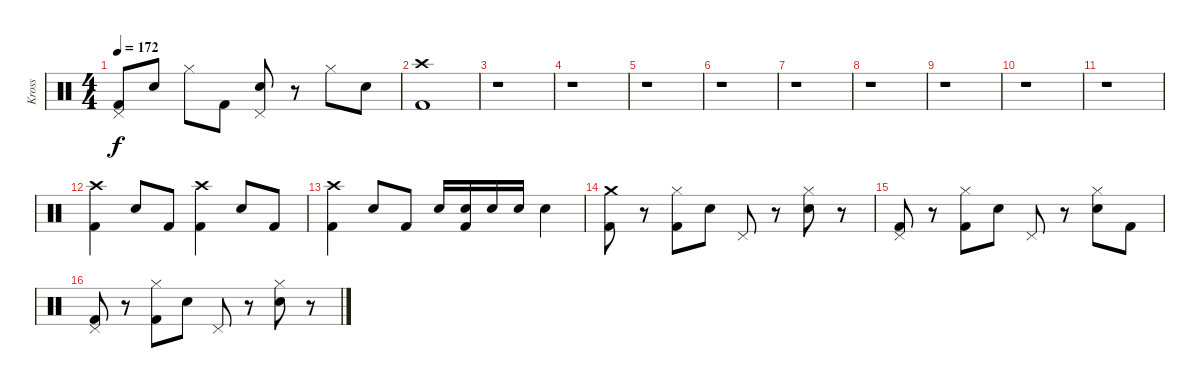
\track ("Kross" "Kross") {instrument percussion}
\staff {score}
\articulation defaults
\ts (4 4)
\tempo 172
\clef neutral
\ks c
("Pedal Hi-Hat (hit)" "Kick (hit) 2").8{dy f} "Electric Snare (hit)".8 "Hi-Hat (closed)".8 "Kick (hit) 2".8 ("Pedal Hi-Hat (hit)" "Electric Snare (hit)").8 r.8 "Hi-Hat (closed)".8 "Electric Snare (hit)".8 |
("Crash high (hit)" "Kick (hit) 2").1 |
r.1 |
r.1 |
r.1 |
r.1 |
r.1 |
r.1 |
r.1 |
r.1 |
r.1 |
("Crash high (hit)" "Kick (hit) 2").4 "Electric Snare (hit)".8 "Kick (hit) 2".8 ("Crash high (hit)" "Kick (hit) 2").4 "Electric Snare (hit)".8 "Kick (hit) 2".8 |
("Crash high (hit)" "Kick (hit) 2").4 "Electric Snare (hit)".8 "Kick (hit) 2".8 "Electric Snare (hit)".16 ("Electric Snare (hit)" "Kick (hit) 2").16 "Electric Snare (hit)".16 "Electric Snare (hit)".16 "Electric Snare (hit)".4 |
("Crash medium (hit)" "Kick (hit) 2").8 r.8 ("Hi-Hat (closed)" "Kick (hit) 2").8 "Electric Snare (hit)".8 "Pedal Hi-Hat (hit)".8 r.8 ("Hi-Hat (closed)" "Electric Snare (hit)").8 r.8 |
("Pedal Hi-Hat (hit)" "Kick (hit) 2").8 r.8 ("Hi-Hat (closed)" "Kick (hit) 2").8 "Electric Snare (hit)".8 "Pedal Hi-Hat (hit)".8 r.8 ("Hi-Hat (closed)" "Electric Snare (hit)").8 "Kick (hit) 2".8 |
("Pedal Hi-Hat (hit)" "Kick (hit) 2").8 r.8 ("Hi-Hat (closed)" "Kick (hit) 2").8 "Electric Snare (hit)".8 "Pedal Hi-Hat (hit)".8 r.8 ("Hi-Hat (closed)" "Electric Snare (hit)").8 r.8
